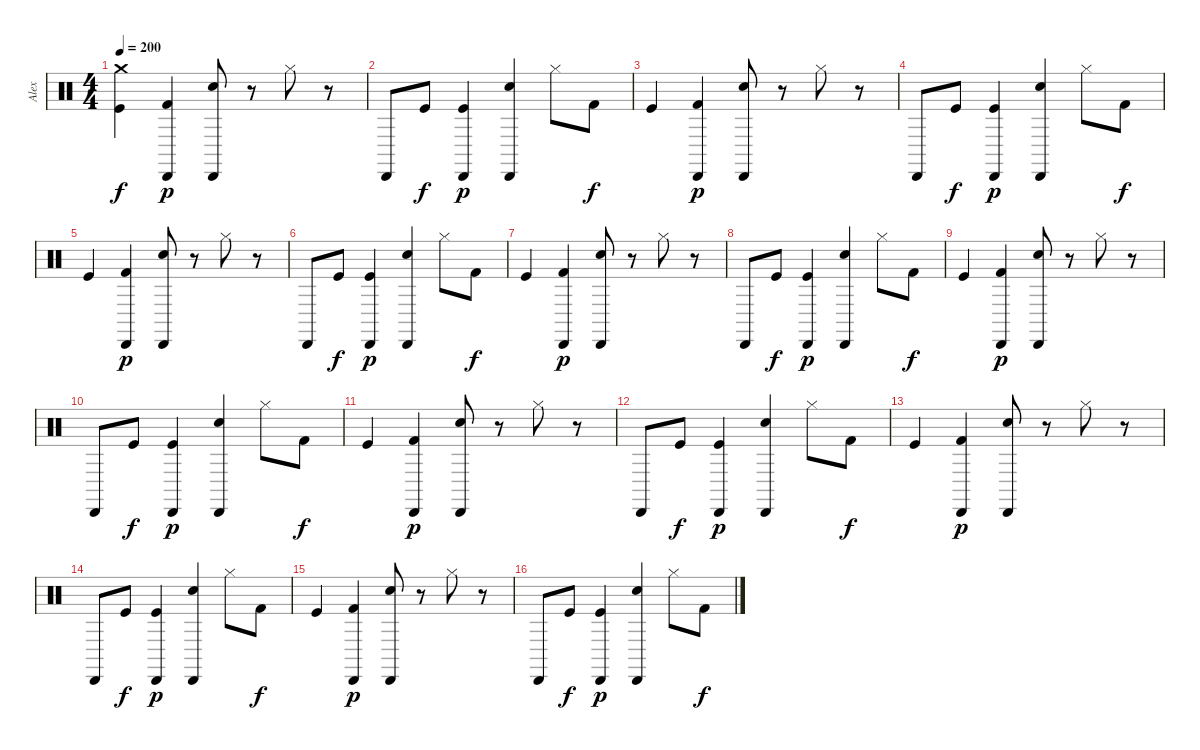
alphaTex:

\track ("Alex" "Alex") {instrument percussion}
\staff {score}
\articulation defaults
\ts (4 4)
\tempo 200
\clef neutral
\ks c
("Crash medium (hit)" "Kick (hit)").4{dy f} ("Kick (hit) 2" "Cabasa (hit)").4{dy p} ("Electric Snare (hit)" "Cabasa (hit)").8 r.8 "Hi-Hat (closed)".8 r.8 |
"Cabasa (hit)".8 "Kick (hit)".8{dy f} ("Kick (hit)" "Cabasa (hit)").4{dy p} ("Electric Snare (hit)" "Cabasa (hit)").4 "Hi-Hat (closed)".8 "Kick (hit) 2".8{dy f} |
"Kick (hit)".4 ("Kick (hit) 2" "Cabasa (hit)").4{dy p} ("Electric Snare (hit)" "Cabasa (hit)").8 r.8 "Hi-Hat (closed)".8 r.8 |
"Cabasa (hit)".8 "Kick (hit)".8{dy f} ("Kick (hit)" "Cabasa (hit)").4{dy p} ("Electric Snare (hit)" "Cabasa (hit)").4 "Hi-Hat (closed)".8 "Kick (hit) 2".8{dy f} |
"Kick (hit)".4 ("Kick (hit) 2" "Cabasa (hit)").4{dy p} ("Electric Snare (hit)" "Cabasa (hit)").8 r.8 "Hi-Hat (closed)".8 r.8 |
"Cabasa (hit)".8 "Kick (hit)".8{dy f} ("Kick (hit)" "Cabasa (hit)").4{dy p} ("Electric Snare (hit)" "Cabasa (hit)").4 "Hi-Hat (closed)".8 "Kick (hit) 2".8{dy f} |
"Kick (hit)".4 ("Kick (hit) 2" "Cabasa (hit)").4{dy p} ("Electric Snare (hit)" "Cabasa (hit)").8 r.8 "Hi-Hat (closed)".8 r.8 |
"Cabasa (hit)".8 "Kick (hit)".8{dy f} ("Kick (hit)" "Cabasa (hit)").4{dy p} ("Electric Snare (hit)" "Cabasa (hit)").4 "Hi-Hat (closed)".8 "Kick (hit) 2".8{dy f} |
"Kick (hit)".4 ("Kick (hit) 2" "Cabasa (hit)").4{dy p} ("Electric Snare (hit)" "Cabasa (hit)").8 r.8 "Hi-Hat (closed)".8 r.8 |
"Cabasa (hit)".8 "Kick (hit)".8{dy f} ("Kick (hit)" "Cabasa (hit)").4{dy p} ("Electric Snare (hit)" "Cabasa (hit)").4 "Hi-Hat (closed)".8 "Kick (hit) 2".8{dy f} |
"Kick (hit)".4 ("Kick (hit) 2" "Cabasa (hit)").4{dy p} ("Electric Snare (hit)" "Cabasa (hit)").8 r.8 "Hi-Hat (closed)".8 r.8 |
"Cabasa (hit)".8 "Kick (hit)".8{dy f} ("Kick (hit)" "Cabasa (hit)").4{dy p} ("Electric Snare (hit)" "Cabasa (hit)").4 "Hi-Hat (closed)".8 "Kick (hit) 2".8{dy f} |
"Kick (hit)".4 ("Kick (hit) 2" "Cabasa (hit)").4{dy p} ("Electric Snare (hit)" "Cabasa (hit)").8 r.8 "Hi-Hat (closed)".8 r.8 |
"Cabasa (hit)".8 "Kick (hit)".8{dy f} ("Kick (hit)" "Cabasa (hit)").4{dy p} ("Electric Snare (hit)" "Cabasa (hit)").4 "Hi-Hat (closed)".8 "Kick (hit) 2".8{dy f} |
"Kick (hit)".4 ("Kick (hit) 2" "Cabasa (hit)").4{dy p} ("Electric Snare (hit)" "Cabasa (hit)").8 r.8 "Hi-Hat (closed)".8 r.8 |
"Cabasa (hit)".8 "Kick (hit)".8{dy f} ("Kick (hit)" "Cabasa (hit)").4{dy p} ("Electric Snare (hit)" "Cabasa (hit)").4 "Hi-Hat (closed)".8 "Kick (hit) 2".8{dy f}
